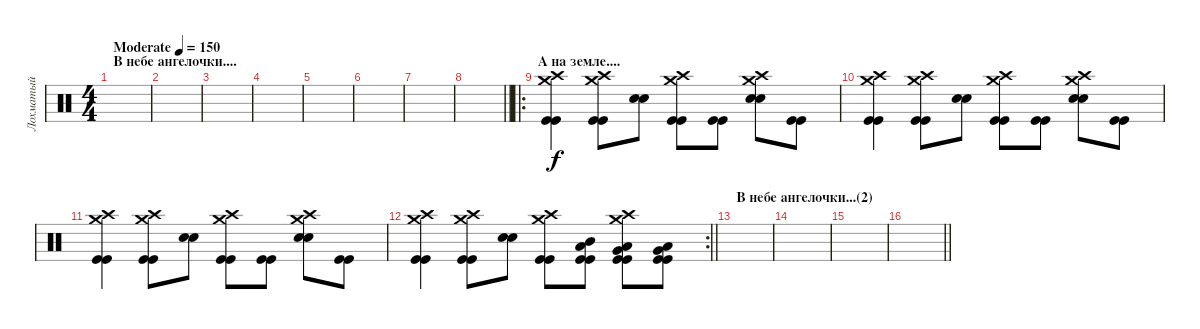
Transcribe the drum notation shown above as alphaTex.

\track ("Лохматый" "Лохматый") {instrument percussion}
\staff {score}
\articulation defaults
\ts (4 4)
\section ("" "В небе ангелочки....")
\tempo (150 "Moderate")
\clef neutral
\ks c
|
|
|
|
|
|
|
\barLineRight lightlight
|
\ro
\section ("" "А на земле....")
("Crash high (hit)" "Crash medium (hit)" "Kick (hit)" "Kick (hit)").4 ("Crash high (hit)" "Crash medium (hit)" "Kick (hit)" "Kick (hit)").8 ("Electric Snare (hit)" "Electric Snare (hit)").8 ("Crash high (hit)" "Crash medium (hit)" "Kick (hit)" "Kick (hit)").8 ("Kick (hit)" "Kick (hit)").8 ("Crash high (hit)" "Crash medium (hit)" "Electric Snare (hit)" "Electric Snare (hit)").8 ("Kick (hit)" "Kick (hit)").8 |
("Crash high (hit)" "Crash medium (hit)" "Kick (hit)" "Kick (hit)").4 ("Crash high (hit)" "Crash medium (hit)" "Kick (hit)" "Kick (hit)").8 ("Electric Snare (hit)" "Electric Snare (hit)").8 ("Crash high (hit)" "Crash medium (hit)" "Kick (hit)" "Kick (hit)").8 ("Kick (hit)" "Kick (hit)").8 ("Crash high (hit)" "Crash medium (hit)" "Electric Snare (hit)" "Electric Snare (hit)").8 ("Kick (hit)" "Kick (hit)").8 |
("Crash high (hit)" "Crash medium (hit)" "Kick (hit)" "Kick (hit)").4 ("Crash high (hit)" "Crash medium (hit)" "Kick (hit)" "Kick (hit)").8 ("Electric Snare (hit)" "Electric Snare (hit)").8 ("Crash high (hit)" "Crash medium (hit)" "Kick (hit)" "Kick (hit)").8 ("Kick (hit)" "Kick (hit)").8 ("Crash high (hit)" "Crash medium (hit)" "Electric Snare (hit)" "Electric Snare (hit)").8 ("Kick (hit)" "Kick (hit)").8 |
\rc 2
\barLineRight lightlight
("Crash high (hit)" "Crash medium (hit)" "Kick (hit)" "Kick (hit)").4 ("Crash high (hit)" "Crash medium (hit)" "Kick (hit)" "Kick (hit)").8 ("Electric Snare (hit)" "Electric Snare (hit)").8 ("Crash high (hit)" "Crash medium (hit)" "Kick (hit)" "Kick (hit)").8 ("Mid Tom (hit)" "Low Floor Tom (hit)" "Kick (hit)" "Kick (hit)").8 ("Crash high (hit)" "Crash medium (hit)" "Very Low Tom (hit)" "Low Floor Tom (hit)" "Kick (hit)" "Kick (hit)").8 ("Very Low Tom (hit)" "Low Floor Tom (hit)" "Kick (hit)" "Kick (hit)").8 |
\section ("" "В небе ангелочки...(2)")
|
|
|
\barLineRight lightlight
